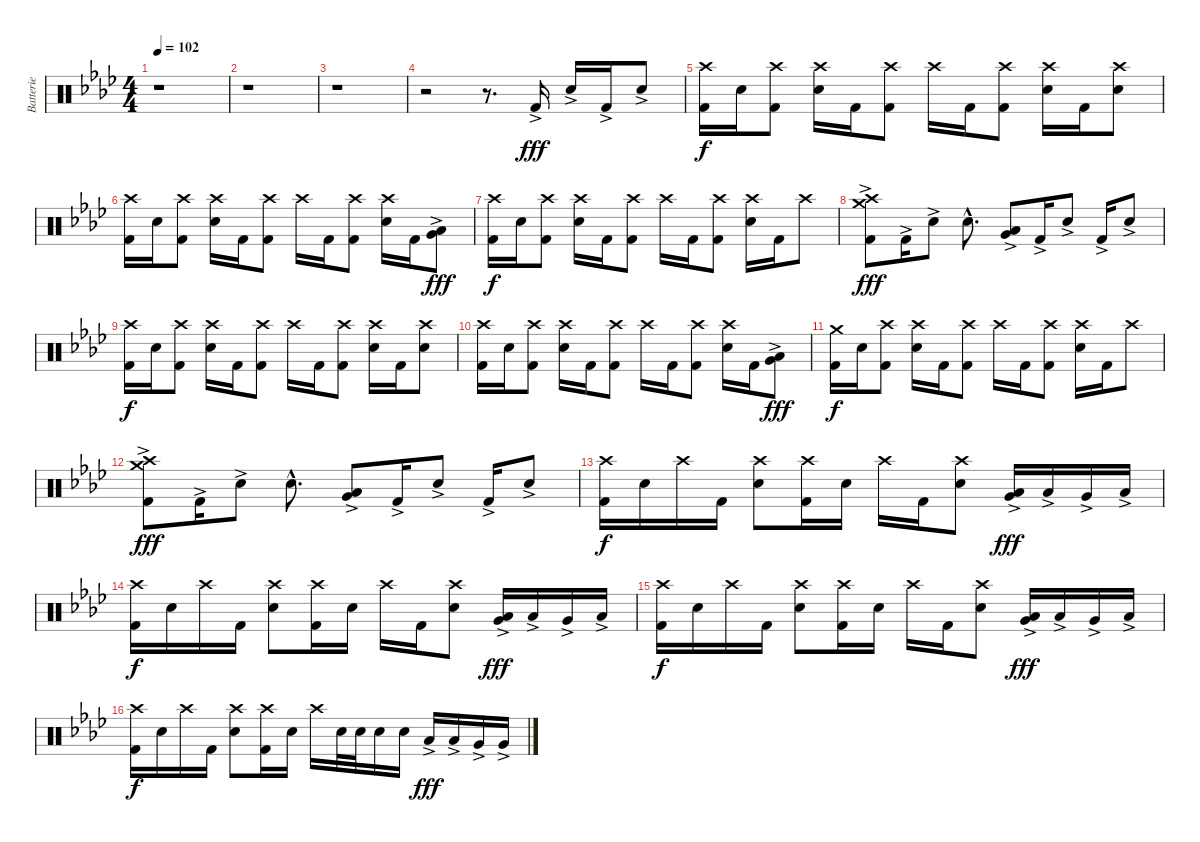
\track ("Batterie" "Batterie") {instrument percussion}
\staff {score}
\articulation defaults
\ts (4 4)
\tempo 102
\clef neutral
\ks fminor
r.1{dy fff} |
r.1 |
r.1 |
r.2 r.8{d} "Kick (hit) 2"{ac}.16 "Snare (hit) 2"{ac}.16 "Kick (hit) 2"{ac}.16 "Snare (hit) 2"{ac}.8 |
\section ("" "")
("Crash high (hit)" "Kick (hit) 2").16{dy f} "Snare (hit) 2".16 ("Crash high (hit)" "Kick (hit) 2").8 ("Crash high (hit)" "Snare (hit) 2").16 "Kick (hit) 2".16 ("Crash high (hit)" "Kick (hit) 2").8 "Crash high (hit)".16 "Kick (hit) 2".16 ("Crash high (hit)" "Kick (hit) 2").8 ("Crash high (hit)" "Snare (hit) 2").16 "Kick (hit) 2".16 ("Crash high (hit)" "Snare (hit) 2").8 |
("Crash high (hit)" "Kick (hit) 2").16 "Snare (hit) 2".16 ("Crash high (hit)" "Kick (hit) 2").8 ("Crash high (hit)" "Snare (hit) 2").16 "Kick (hit) 2".16 ("Crash high (hit)" "Kick (hit) 2").8 "Crash high (hit)".16 "Kick (hit) 2".16 ("Crash high (hit)" "Kick (hit) 2").8 ("Crash high (hit)" "Snare (hit) 2").16 "Kick (hit) 2".16 ("Low Tom (hit)"{ac} "Very Low Tom (hit)"{ac}).8{dy fff} |
("Crash high (hit)" "Kick (hit) 2").16{dy f} "Snare (hit) 2".16 ("Crash high (hit)" "Kick (hit) 2").8 ("Crash high (hit)" "Snare (hit) 2").16 "Kick (hit) 2".16 ("Crash high (hit)" "Kick (hit) 2").8 "Crash high (hit)".16 "Kick (hit) 2".16 ("Crash high (hit)" "Kick (hit) 2").8 ("Crash high (hit)" "Snare (hit) 2").16 "Kick (hit) 2".16 "Crash high (hit)".8 |
("Crash high (hit)" "Crash medium (hit)" "Kick (hit) 2"{ac}).8{dy fff} "Kick (hit) 2"{ac}.16 "Snare (hit) 2"{ac}.8 "Snare (hit) 2"{hac}.8{d} ("Low Tom (hit)"{ac} "Very Low Tom (hit)"{ac}).8 "Kick (hit) 2"{ac}.16 "Snare (hit) 2"{ac}.8 "Kick (hit) 2"{ac}.16 "Snare (hit) 2"{ac}.8 |
("Crash high (hit)" "Kick (hit) 2").16{dy f} "Snare (hit) 2".16 ("Crash high (hit)" "Kick (hit) 2").8 ("Crash high (hit)" "Snare (hit) 2").16 "Kick (hit) 2".16 ("Crash high (hit)" "Kick (hit) 2").8 "Crash high (hit)".16 "Kick (hit) 2".16 ("Crash high (hit)" "Kick (hit) 2").8 ("Crash high (hit)" "Snare (hit) 2").16 "Kick (hit) 2".16 ("Crash high (hit)" "Snare (hit) 2").8 |
("Crash high (hit)" "Kick (hit) 2").16 "Snare (hit) 2".16 ("Crash high (hit)" "Kick (hit) 2").8 ("Crash high (hit)" "Snare (hit) 2").16 "Kick (hit) 2".16 ("Crash high (hit)" "Kick (hit) 2").8 "Crash high (hit)".16 "Kick (hit) 2".16 ("Crash high (hit)" "Kick (hit) 2").8 ("Crash high (hit)" "Snare (hit) 2").16 "Kick (hit) 2".16 ("Low Tom (hit)"{ac} "Very Low Tom (hit)"{ac}).8{dy fff} |
("Crash medium (hit)" "Kick (hit) 2").16{dy f} "Snare (hit) 2".16 ("Crash high (hit)" "Kick (hit) 2").8 ("Crash high (hit)" "Snare (hit) 2").16 "Kick (hit) 2".16 ("Crash high (hit)" "Kick (hit) 2").8 "Crash high (hit)".16 "Kick (hit) 2".16 ("Crash high (hit)" "Kick (hit) 2").8 ("Crash high (hit)" "Snare (hit) 2").16 "Kick (hit) 2".16 "Crash high (hit)".8 |
("Crash high (hit)" "Crash medium (hit)" "Kick (hit) 2"{ac}).8{dy fff} "Kick (hit) 2"{ac}.16 "Snare (hit) 2"{ac}.8 "Snare (hit) 2"{hac}.8{d} ("Low Tom (hit)"{ac} "Very Low Tom (hit)"{ac}).8 "Kick (hit) 2"{ac}.16 "Snare (hit) 2"{ac}.8 "Kick (hit) 2"{ac}.16 "Snare (hit) 2"{ac}.8 |
\section ("" "")
("Crash high (hit)" "Kick (hit) 2").16{dy f} "Snare (hit) 2".16 "Crash high (hit)".16 "Kick (hit) 2".16 ("Crash high (hit)" "Snare (hit) 2").8 ("Crash high (hit)" "Kick (hit) 2").16 "Snare (hit) 2".16 "Crash high (hit)".16 "Kick (hit) 2".16 ("Crash high (hit)" "Snare (hit) 2").8 ("Low Tom (hit)"{ac} "Very Low Tom (hit)"{ac}).16{dy fff} "Low Tom (hit)"{ac}.16 "Very Low Tom (hit)"{ac}.16 "Low Floor Tom (hit)"{ac}.16 |
("Crash high (hit)" "Kick (hit) 2").16{dy f} "Snare (hit) 2".16 "Crash high (hit)".16 "Kick (hit) 2".16 ("Crash high (hit)" "Snare (hit) 2").8 ("Crash high (hit)" "Kick (hit) 2").16 "Snare (hit) 2".16 "Crash high (hit)".16 "Kick (hit) 2".16 ("Crash high (hit)" "Snare (hit) 2").8 ("Low Tom (hit)"{ac} "Very Low Tom (hit)"{ac}).16{dy fff} "Low Tom (hit)"{ac}.16 "Very Low Tom (hit)"{ac}.16 "Low Floor Tom (hit)"{ac}.16 |
("Crash high (hit)" "Kick (hit) 2").16{dy f} "Snare (hit) 2".16 "Crash high (hit)".16 "Kick (hit) 2".16 ("Crash high (hit)" "Snare (hit) 2").8 ("Crash high (hit)" "Kick (hit) 2").16 "Snare (hit) 2".16 "Crash high (hit)".16 "Kick (hit) 2".16 ("Crash high (hit)" "Snare (hit) 2").8 ("Low Tom (hit)"{ac} "Very Low Tom (hit)"{ac}).16{dy fff} "Low Tom (hit)"{ac}.16 "Very Low Tom (hit)"{ac}.16 "Low Floor Tom (hit)"{ac}.16 |
("Crash high (hit)" "Kick (hit) 2").16{dy f} "Snare (hit) 2".16 "Crash high (hit)".16 "Kick (hit) 2".16 ("Crash high (hit)" "Snare (hit) 2").8 ("Crash high (hit)" "Kick (hit) 2").16 "Snare (hit) 2".16 "Crash high (hit)".16 "Snare (hit) 2".32 "Snare (hit) 2".32 "Snare (hit) 2".16 "Snare (hit) 2".16 "Low Tom (hit)"{ac}.16{dy fff} "Low Tom (hit)"{ac}.16 "Very Low Tom (hit)"{ac}.16 "Very Low Tom (hit)"{ac}.16
